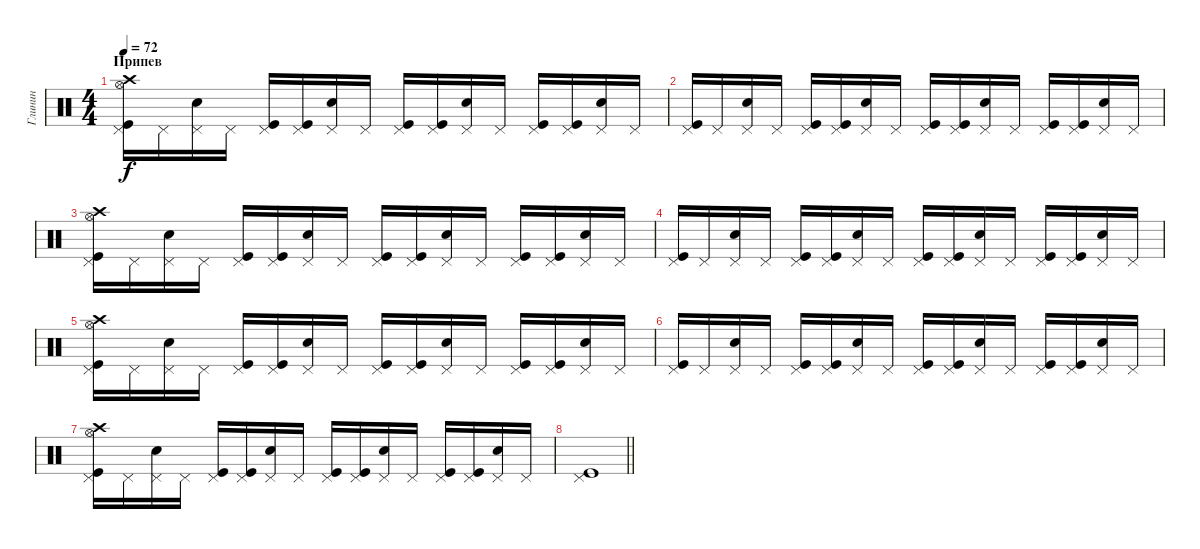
\track ("Глинин" "Глинин") {instrument percussion}
\staff {score}
\articulation defaults
\ts (4 4)
\section ("" "Припев")
\tempo 72
\clef neutral
\ks c
("Pedal Hi-Hat (hit)" "Kick (hit)" "Crash high (hit)" "Hi-Hat (open)").16{dy f} "Pedal Hi-Hat (hit)".16 ("Pedal Hi-Hat (hit)" "Snare (hit) 2").16 "Pedal Hi-Hat (hit)".16 ("Pedal Hi-Hat (hit)" "Kick (hit)").16 ("Pedal Hi-Hat (hit)" "Kick (hit)").16 ("Pedal Hi-Hat (hit)" "Snare (hit) 2").16 "Pedal Hi-Hat (hit)".16 ("Pedal Hi-Hat (hit)" "Kick (hit)").16 ("Pedal Hi-Hat (hit)" "Kick (hit)").16 ("Pedal Hi-Hat (hit)" "Snare (hit) 2").16 "Pedal Hi-Hat (hit)".16 ("Pedal Hi-Hat (hit)" "Kick (hit)").16 ("Pedal Hi-Hat (hit)" "Kick (hit)").16 ("Pedal Hi-Hat (hit)" "Snare (hit) 2").16 "Pedal Hi-Hat (hit)".16 |
("Pedal Hi-Hat (hit)" "Kick (hit)").16 "Pedal Hi-Hat (hit)".16 ("Pedal Hi-Hat (hit)" "Snare (hit) 2").16 "Pedal Hi-Hat (hit)".16 ("Pedal Hi-Hat (hit)" "Kick (hit)").16 ("Pedal Hi-Hat (hit)" "Kick (hit)").16 ("Pedal Hi-Hat (hit)" "Snare (hit) 2").16 "Pedal Hi-Hat (hit)".16 ("Pedal Hi-Hat (hit)" "Kick (hit)").16 ("Pedal Hi-Hat (hit)" "Kick (hit)").16 ("Pedal Hi-Hat (hit)" "Snare (hit) 2").16 "Pedal Hi-Hat (hit)".16 ("Pedal Hi-Hat (hit)" "Kick (hit)").16 ("Pedal Hi-Hat (hit)" "Kick (hit)").16 ("Pedal Hi-Hat (hit)" "Snare (hit) 2").16 "Pedal Hi-Hat (hit)".16 |
("Pedal Hi-Hat (hit)" "Kick (hit)" "Crash high (hit)" "Hi-Hat (open)").16 "Pedal Hi-Hat (hit)".16 ("Pedal Hi-Hat (hit)" "Snare (hit) 2").16 "Pedal Hi-Hat (hit)".16 ("Pedal Hi-Hat (hit)" "Kick (hit)").16 ("Pedal Hi-Hat (hit)" "Kick (hit)").16 ("Pedal Hi-Hat (hit)" "Snare (hit) 2").16 "Pedal Hi-Hat (hit)".16 ("Pedal Hi-Hat (hit)" "Kick (hit)").16 ("Pedal Hi-Hat (hit)" "Kick (hit)").16 ("Pedal Hi-Hat (hit)" "Snare (hit) 2").16 "Pedal Hi-Hat (hit)".16 ("Pedal Hi-Hat (hit)" "Kick (hit)").16 ("Pedal Hi-Hat (hit)" "Kick (hit)").16 ("Pedal Hi-Hat (hit)" "Snare (hit) 2").16 "Pedal Hi-Hat (hit)".16 |
("Pedal Hi-Hat (hit)" "Kick (hit)").16 "Pedal Hi-Hat (hit)".16 ("Pedal Hi-Hat (hit)" "Snare (hit) 2").16 "Pedal Hi-Hat (hit)".16 ("Pedal Hi-Hat (hit)" "Kick (hit)").16 ("Pedal Hi-Hat (hit)" "Kick (hit)").16 ("Pedal Hi-Hat (hit)" "Snare (hit) 2").16 "Pedal Hi-Hat (hit)".16 ("Pedal Hi-Hat (hit)" "Kick (hit)").16 ("Pedal Hi-Hat (hit)" "Kick (hit)").16 ("Pedal Hi-Hat (hit)" "Snare (hit) 2").16 "Pedal Hi-Hat (hit)".16 ("Pedal Hi-Hat (hit)" "Kick (hit)").16 ("Pedal Hi-Hat (hit)" "Kick (hit)").16 ("Pedal Hi-Hat (hit)" "Snare (hit) 2").16 "Pedal Hi-Hat (hit)".16 |
("Pedal Hi-Hat (hit)" "Kick (hit)" "Crash high (hit)" "Hi-Hat (open)").16 "Pedal Hi-Hat (hit)".16 ("Pedal Hi-Hat (hit)" "Snare (hit) 2").16 "Pedal Hi-Hat (hit)".16 ("Pedal Hi-Hat (hit)" "Kick (hit)").16 ("Pedal Hi-Hat (hit)" "Kick (hit)").16 ("Pedal Hi-Hat (hit)" "Snare (hit) 2").16 "Pedal Hi-Hat (hit)".16 ("Pedal Hi-Hat (hit)" "Kick (hit)").16 ("Pedal Hi-Hat (hit)" "Kick (hit)").16 ("Pedal Hi-Hat (hit)" "Snare (hit) 2").16 "Pedal Hi-Hat (hit)".16 ("Pedal Hi-Hat (hit)" "Kick (hit)").16 ("Pedal Hi-Hat (hit)" "Kick (hit)").16 ("Pedal Hi-Hat (hit)" "Snare (hit) 2").16 "Pedal Hi-Hat (hit)".16 |
("Pedal Hi-Hat (hit)" "Kick (hit)").16 "Pedal Hi-Hat (hit)".16 ("Pedal Hi-Hat (hit)" "Snare (hit) 2").16 "Pedal Hi-Hat (hit)".16 ("Pedal Hi-Hat (hit)" "Kick (hit)").16 ("Pedal Hi-Hat (hit)" "Kick (hit)").16 ("Pedal Hi-Hat (hit)" "Snare (hit) 2").16 "Pedal Hi-Hat (hit)".16 ("Pedal Hi-Hat (hit)" "Kick (hit)").16 ("Pedal Hi-Hat (hit)" "Kick (hit)").16 ("Pedal Hi-Hat (hit)" "Snare (hit) 2").16 "Pedal Hi-Hat (hit)".16 ("Pedal Hi-Hat (hit)" "Kick (hit)").16 ("Pedal Hi-Hat (hit)" "Kick (hit)").16 ("Pedal Hi-Hat (hit)" "Snare (hit) 2").16 "Pedal Hi-Hat (hit)".16 |
("Pedal Hi-Hat (hit)" "Kick (hit)" "Crash high (hit)" "Hi-Hat (open)").16 "Pedal Hi-Hat (hit)".16 ("Pedal Hi-Hat (hit)" "Snare (hit) 2").16 "Pedal Hi-Hat (hit)".16 ("Pedal Hi-Hat (hit)" "Kick (hit)").16 ("Pedal Hi-Hat (hit)" "Kick (hit)").16 ("Pedal Hi-Hat (hit)" "Snare (hit) 2").16 "Pedal Hi-Hat (hit)".16 ("Pedal Hi-Hat (hit)" "Kick (hit)").16 ("Pedal Hi-Hat (hit)" "Kick (hit)").16 ("Pedal Hi-Hat (hit)" "Snare (hit) 2").16 "Pedal Hi-Hat (hit)".16 ("Pedal Hi-Hat (hit)" "Kick (hit)").16 ("Pedal Hi-Hat (hit)" "Kick (hit)").16 ("Pedal Hi-Hat (hit)" "Snare (hit) 2").16 "Pedal Hi-Hat (hit)".16 |
\barLineRight lightlight
("Pedal Hi-Hat (hit)" "Kick (hit)").1
